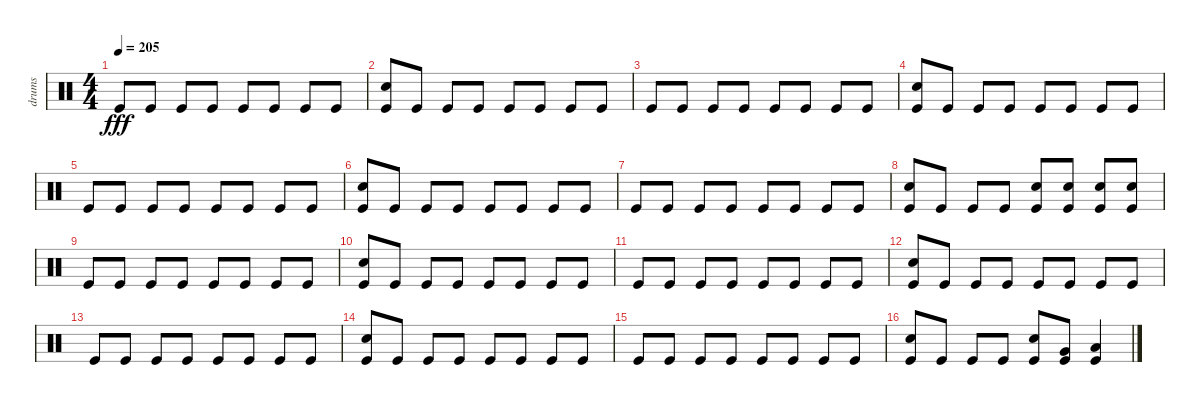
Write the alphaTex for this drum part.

\track ("drums" "drums") {instrument percussion}
\staff {score}
\articulation defaults
\ts (4 4)
\tempo 205
\clef neutral
\ks c "Kick (hit)".8{dy fff} "Kick (hit)".8 "Kick (hit)".8 "Kick (hit)".8 "Kick (hit)".8 "Kick (hit)".8 "Kick (hit)".8 "Kick (hit)".8
|
("Electric Snare (hit)" "Kick (hit)").8 "Kick (hit)".8 "Kick (hit)".8 "Kick (hit)".8 "Kick (hit)".8 "Kick (hit)".8 "Kick (hit)".8 "Kick (hit)".8 |
"Kick (hit)".8 "Kick (hit)".8 "Kick (hit)".8 "Kick (hit)".8 "Kick (hit)".8 "Kick (hit)".8 "Kick (hit)".8 "Kick (hit)".8 |
("Electric Snare (hit)" "Kick (hit)").8 "Kick (hit)".8 "Kick (hit)".8 "Kick (hit)".8 "Kick (hit)".8 "Kick (hit)".8 "Kick (hit)".8 "Kick (hit)".8 |
"Kick (hit)".8 "Kick (hit)".8 "Kick (hit)".8 "Kick (hit)".8 "Kick (hit)".8 "Kick (hit)".8 "Kick (hit)".8 "Kick (hit)".8 |
("Electric Snare (hit)" "Kick (hit)").8 "Kick (hit)".8 "Kick (hit)".8 "Kick (hit)".8 "Kick (hit)".8 "Kick (hit)".8 "Kick (hit)".8 "Kick (hit)".8 |
"Kick (hit)".8 "Kick (hit)".8 "Kick (hit)".8 "Kick (hit)".8 "Kick (hit)".8 "Kick (hit)".8 "Kick (hit)".8 "Kick (hit)".8 |
("Electric Snare (hit)" "Kick (hit)").8 "Kick (hit)".8 "Kick (hit)".8 "Kick (hit)".8 ("Electric Snare (hit)" "Kick (hit)").8 ("Electric Snare (hit)" "Kick (hit)").8 ("Electric Snare (hit)" "Kick (hit)").8 ("Electric Snare (hit)" "Kick (hit)").8 |
"Kick (hit)".8 "Kick (hit)".8 "Kick (hit)".8 "Kick (hit)".8 "Kick (hit)".8 "Kick (hit)".8 "Kick (hit)".8 "Kick (hit)".8 |
("Electric Snare (hit)" "Kick (hit)").8 "Kick (hit)".8 "Kick (hit)".8 "Kick (hit)".8 "Kick (hit)".8 "Kick (hit)".8 "Kick (hit)".8 "Kick (hit)".8 |
"Kick (hit)".8 "Kick (hit)".8 "Kick (hit)".8 "Kick (hit)".8 "Kick (hit)".8 "Kick (hit)".8 "Kick (hit)".8 "Kick (hit)".8 |
("Electric Snare (hit)" "Kick (hit)").8 "Kick (hit)".8 "Kick (hit)".8 "Kick (hit)".8 "Kick (hit)".8 "Kick (hit)".8 "Kick (hit)".8 "Kick (hit)".8 |
"Kick (hit)".8 "Kick (hit)".8 "Kick (hit)".8 "Kick (hit)".8 "Kick (hit)".8 "Kick (hit)".8 "Kick (hit)".8 "Kick (hit)".8 |
("Electric Snare (hit)" "Kick (hit)").8 "Kick (hit)".8 "Kick (hit)".8 "Kick (hit)".8 "Kick (hit)".8 "Kick (hit)".8 "Kick (hit)".8 "Kick (hit)".8 |
"Kick (hit)".8 "Kick (hit)".8 "Kick (hit)".8 "Kick (hit)".8 "Kick (hit)".8 "Kick (hit)".8 "Kick (hit)".8 "Kick (hit)".8 |
("Electric Snare (hit)" "Kick (hit)").8 "Kick (hit)".8 "Kick (hit)".8 "Kick (hit)".8 ("Electric Snare (hit)" "Kick (hit)").8 ("Very Low Tom (hit)" "Kick (hit)").8 ("Low Floor Tom (hit)" "Kick (hit)").4
